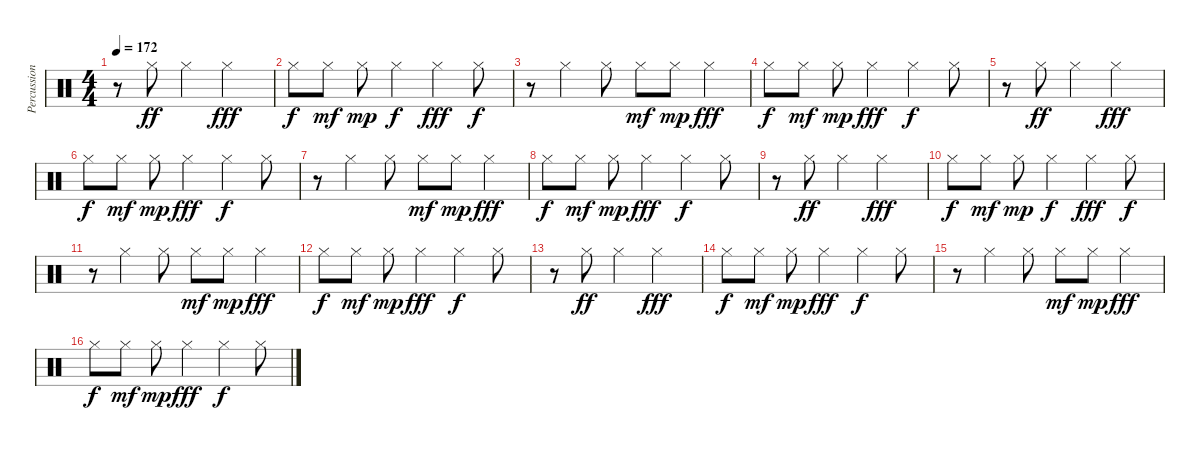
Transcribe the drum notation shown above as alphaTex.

\track ("Percussion" "Percussion") {solo instrument percussion}
\staff {score}
\articulation defaults
\ts (4 4)
\tempo 172
\clef neutral
\ks c
r.8{dy f} "Hi-Hat (closed)".8{dy ff} "Hi-Hat (closed)".4 "Hi-Hat (closed)".2{dy fff} |
"Hi-Hat (closed)".8{dy f} "Hi-Hat (closed)".8{dy mf} "Hi-Hat (closed)".8{dy mp} "Hi-Hat (closed)".4{dy f} "Hi-Hat (closed)".4{dy fff} "Hi-Hat (closed)".8{dy f} |
r.8 "Hi-Hat (closed)".4 "Hi-Hat (closed)".8 "Hi-Hat (closed)".8{dy mf} "Hi-Hat (closed)".8{dy mp} "Hi-Hat (closed)".4{dy fff} |
"Hi-Hat (closed)".8{dy f} "Hi-Hat (closed)".8{dy mf} "Hi-Hat (closed)".8{dy mp} "Hi-Hat (closed)".4{dy fff} "Hi-Hat (closed)".4{dy f} "Hi-Hat (closed)".8 |
r.8 "Hi-Hat (closed)".8{dy ff} "Hi-Hat (closed)".4 "Hi-Hat (closed)".2{dy fff} |
"Hi-Hat (closed)".8{dy f} "Hi-Hat (closed)".8{dy mf} "Hi-Hat (closed)".8{dy mp} "Hi-Hat (closed)".4{dy fff} "Hi-Hat (closed)".4{dy f} "Hi-Hat (closed)".8 |
r.8 "Hi-Hat (closed)".4 "Hi-Hat (closed)".8 "Hi-Hat (closed)".8{dy mf} "Hi-Hat (closed)".8{dy mp} "Hi-Hat (closed)".4{dy fff} |
"Hi-Hat (closed)".8{dy f} "Hi-Hat (closed)".8{dy mf} "Hi-Hat (closed)".8{dy mp} "Hi-Hat (closed)".4{dy fff} "Hi-Hat (closed)".4{dy f} "Hi-Hat (closed)".8 |
r.8 "Hi-Hat (closed)".8{dy ff} "Hi-Hat (closed)".4 "Hi-Hat (closed)".2{dy fff} |
"Hi-Hat (closed)".8{dy f} "Hi-Hat (closed)".8{dy mf} "Hi-Hat (closed)".8{dy mp} "Hi-Hat (closed)".4{dy f} "Hi-Hat (closed)".4{dy fff} "Hi-Hat (closed)".8{dy f} |
r.8 "Hi-Hat (closed)".4 "Hi-Hat (closed)".8 "Hi-Hat (closed)".8{dy mf} "Hi-Hat (closed)".8{dy mp} "Hi-Hat (closed)".4{dy fff} |
"Hi-Hat (closed)".8{dy f} "Hi-Hat (closed)".8{dy mf} "Hi-Hat (closed)".8{dy mp} "Hi-Hat (closed)".4{dy fff} "Hi-Hat (closed)".4{dy f} "Hi-Hat (closed)".8 |
r.8 "Hi-Hat (closed)".8{dy ff} "Hi-Hat (closed)".4 "Hi-Hat (closed)".2{dy fff} |
"Hi-Hat (closed)".8{dy f} "Hi-Hat (closed)".8{dy mf} "Hi-Hat (closed)".8{dy mp} "Hi-Hat (closed)".4{dy fff} "Hi-Hat (closed)".4{dy f} "Hi-Hat (closed)".8 |
r.8 "Hi-Hat (closed)".4 "Hi-Hat (closed)".8 "Hi-Hat (closed)".8{dy mf} "Hi-Hat (closed)".8{dy mp} "Hi-Hat (closed)".4{dy fff} |
"Hi-Hat (closed)".8{dy f} "Hi-Hat (closed)".8{dy mf} "Hi-Hat (closed)".8{dy mp} "Hi-Hat (closed)".4{dy fff} "Hi-Hat (closed)".4{dy f} "Hi-Hat (closed)".8
